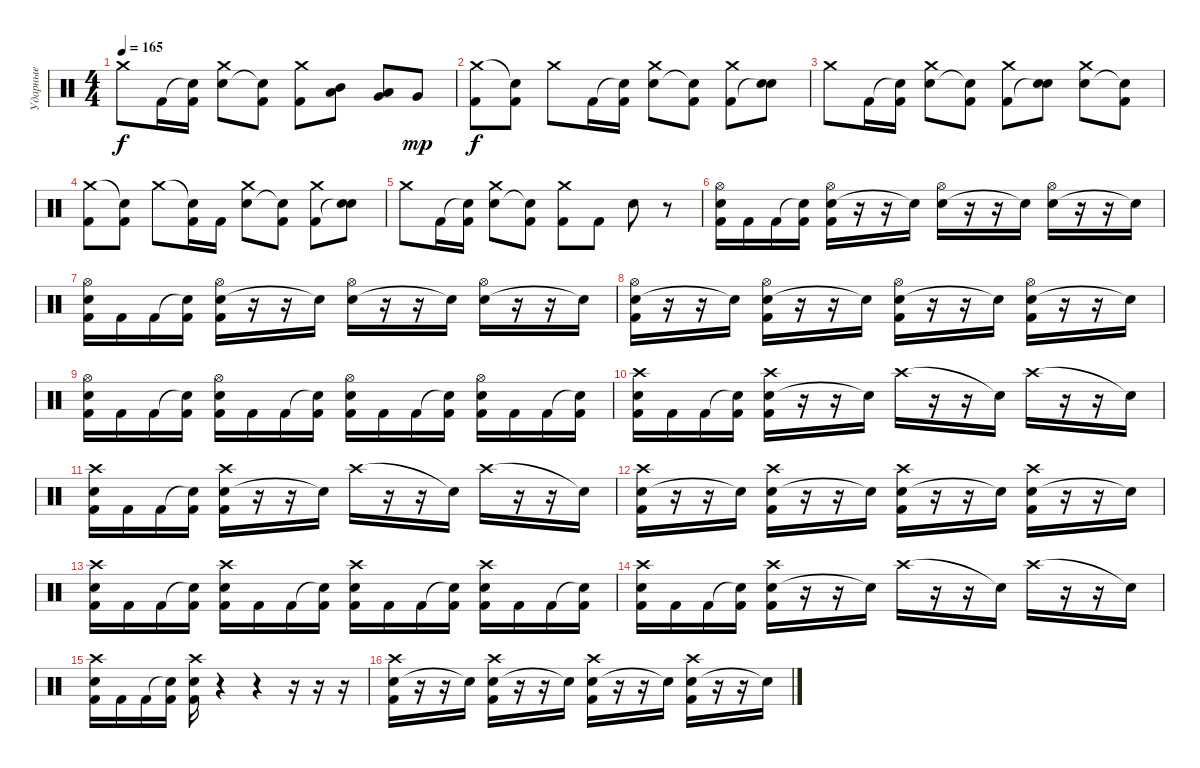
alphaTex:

\track ("Ударные" "Ударные") {instrument percussion}
\staff {score}
\articulation defaults
\ts (4 4)
\tempo 165
\clef neutral
\ks c "Crash medium (hit)".8{dy f} "Kick (hit) 2".16
("Snare (hit)"{t} "Kick (hit) 2").16 ("Electric Snare (hit)" "Crash medium (hit)").8 ("Snare (hit)"{t} "Kick (hit) 2").8 ("Crash medium (hit)" "Kick (hit) 2").8 ("Low Tom (hit)" "Mid Tom (hit)").8 ("Low Tom (hit)" "Very Low Tom (hit)").8 "Very Low Tom (hit)".8{dy mp} |
("Crash medium (hit)" "Kick (hit) 2").8{dy f} ("Snare (hit)"{t} "Kick (hit) 2").8 "Crash medium (hit)".8 "Kick (hit) 2".16 ("Snare (hit)"{t} "Kick (hit) 2").16 ("Electric Snare (hit)" "Crash medium (hit)").8 ("Snare (hit)"{t} "Kick (hit) 2").8 ("Crash medium (hit)" "Kick (hit) 2").8 ("Electric Snare (hit)" "Snare (hit)"{t}).8 |
"Crash medium (hit)".8 "Kick (hit) 2".16 ("Snare (hit)"{t} "Kick (hit) 2").16 ("Electric Snare (hit)" "Crash medium (hit)").8 ("Snare (hit)"{t} "Kick (hit) 2").8 ("Crash medium (hit)" "Kick (hit) 2").8 ("Electric Snare (hit)" "Snare (hit)"{t}).8 ("Electric Snare (hit)" "Crash medium (hit)").8 ("Snare (hit)"{t} "Kick (hit) 2").8 |
("Crash medium (hit)" "Kick (hit) 2").8 ("Snare (hit)"{t} "Kick (hit) 2").8 "Crash medium (hit)".8 ("Snare (hit)"{t} "Kick (hit) 2").16 "Kick (hit) 2".16 ("Electric Snare (hit)" "Crash medium (hit)").8 ("Snare (hit)"{t} "Kick (hit) 2").8 ("Crash medium (hit)" "Kick (hit) 2").8 ("Electric Snare (hit)" "Snare (hit)"{t}).8 |
"Crash medium (hit)".8 "Kick (hit) 2".16 ("Snare (hit)"{t} "Kick (hit) 2").16 ("Electric Snare (hit)" "Crash medium (hit)").8 ("Snare (hit)"{t} "Kick (hit) 2").8 ("Crash medium (hit)" "Kick (hit) 2").8 "Kick (hit) 2".8 "Electric Snare (hit)".8 r.8 |
("Electric Snare (hit)" "Hi-Hat (open)" "Kick (hit) 2").16 "Kick (hit) 2".16 "Kick (hit) 2".16 ("Snare (hit)"{t} "Kick (hit) 2").16 ("Electric Snare (hit)" "Hi-Hat (open)" "Kick (hit) 2").16 r.16 r.16 "Snare (hit)"{t}.16 ("Electric Snare (hit)" "Hi-Hat (open)").16 r.16 r.16 "Snare (hit)"{t}.16 ("Electric Snare (hit)" "Hi-Hat (open)").16 r.16 r.16 "Snare (hit)"{t}.16 |
("Electric Snare (hit)" "Hi-Hat (open)" "Kick (hit) 2").16 "Kick (hit) 2".16 "Kick (hit) 2".16 ("Snare (hit)"{t} "Kick (hit) 2").16 ("Electric Snare (hit)" "Hi-Hat (open)" "Kick (hit) 2").16 r.16 r.16 "Snare (hit)"{t}.16 ("Electric Snare (hit)" "Hi-Hat (open)").16 r.16 r.16 "Snare (hit)"{t}.16 ("Electric Snare (hit)" "Hi-Hat (open)").16 r.16 r.16 "Snare (hit)"{t}.16 |
("Electric Snare (hit)" "Hi-Hat (open)" "Kick (hit) 2").16 r.16 r.16 "Snare (hit)"{t}.16 ("Electric Snare (hit)" "Hi-Hat (open)" "Kick (hit) 2").16 r.16 r.16 "Snare (hit)"{t}.16 ("Electric Snare (hit)" "Hi-Hat (open)" "Kick (hit) 2").16 r.16 r.16 "Snare (hit)"{t}.16 ("Electric Snare (hit)" "Hi-Hat (open)" "Kick (hit) 2").16 r.16 r.16 "Snare (hit)"{t}.16 |
("Electric Snare (hit)" "Hi-Hat (open)" "Kick (hit) 2").16 "Kick (hit) 2".16 "Kick (hit) 2".16 ("Snare (hit)"{t} "Kick (hit) 2").16 ("Electric Snare (hit)" "Hi-Hat (open)" "Kick (hit) 2").16 "Kick (hit) 2".16 "Kick (hit) 2".16 ("Snare (hit)"{t} "Kick (hit) 2").16 ("Electric Snare (hit)" "Hi-Hat (open)" "Kick (hit) 2").16 "Kick (hit) 2".16 "Kick (hit) 2".16 ("Snare (hit)"{t} "Kick (hit) 2").16 ("Electric Snare (hit)" "Hi-Hat (open)" "Kick (hit) 2").16 "Kick (hit) 2".16 "Kick (hit) 2".16 ("Snare (hit)"{t} "Kick (hit) 2").16 |
("Electric Snare (hit)" "Crash high (hit)" "Kick (hit) 2").16 "Kick (hit) 2".16 "Kick (hit) 2".16 ("Snare (hit)"{t} "Kick (hit) 2").16 ("Electric Snare (hit)" "Crash high (hit)" "Kick (hit) 2").16 r.16 r.16 "Snare (hit)"{t}.16 "Crash high (hit)".16 r.16 r.16 "Snare (hit)"{t}.16 "Crash high (hit)".16 r.16 r.16 "Snare (hit)"{t}.16 |
("Electric Snare (hit)" "Crash high (hit)" "Kick (hit) 2").16 "Kick (hit) 2".16 "Kick (hit) 2".16 ("Snare (hit)"{t} "Kick (hit) 2").16 ("Electric Snare (hit)" "Crash high (hit)" "Kick (hit) 2").16 r.16 r.16 "Snare (hit)"{t}.16 "Crash high (hit)".16 r.16 r.16 "Snare (hit)"{t}.16 "Crash high (hit)".16 r.16 r.16 "Snare (hit)"{t}.16 |
("Electric Snare (hit)" "Crash high (hit)" "Kick (hit) 2").16 r.16 r.16 "Snare (hit)"{t}.16 ("Electric Snare (hit)" "Crash high (hit)" "Kick (hit) 2").16 r.16 r.16 "Snare (hit)"{t}.16 ("Electric Snare (hit)" "Crash high (hit)" "Kick (hit) 2").16 r.16 r.16 "Snare (hit)"{t}.16 ("Electric Snare (hit)" "Crash high (hit)" "Kick (hit) 2").16 r.16 r.16 "Snare (hit)"{t}.16 |
("Electric Snare (hit)" "Crash high (hit)" "Kick (hit) 2").16 "Kick (hit) 2".16 "Kick (hit) 2".16 ("Snare (hit)"{t} "Kick (hit) 2").16 ("Electric Snare (hit)" "Crash high (hit)" "Kick (hit) 2").16 "Kick (hit) 2".16 "Kick (hit) 2".16 ("Snare (hit)"{t} "Kick (hit) 2").16 ("Electric Snare (hit)" "Crash high (hit)" "Kick (hit) 2").16 "Kick (hit) 2".16 "Kick (hit) 2".16 ("Snare (hit)"{t} "Kick (hit) 2").16 ("Electric Snare (hit)" "Crash high (hit)" "Kick (hit) 2").16 "Kick (hit) 2".16 "Kick (hit) 2".16 ("Snare (hit)"{t} "Kick (hit) 2").16 |
("Electric Snare (hit)" "Crash high (hit)" "Kick (hit) 2").16 "Kick (hit) 2".16 "Kick (hit) 2".16 ("Snare (hit)"{t} "Kick (hit) 2").16 ("Electric Snare (hit)" "Crash high (hit)" "Kick (hit) 2").16 r.16 r.16 "Snare (hit)"{t}.16 "Crash high (hit)".16 r.16 r.16 "Snare (hit)"{t}.16 "Crash high (hit)".16 r.16 r.16 "Snare (hit)"{t}.16 |
("Electric Snare (hit)" "Crash high (hit)" "Kick (hit) 2").16 "Kick (hit) 2".16 "Kick (hit) 2".16 ("Snare (hit)"{t} "Kick (hit) 2").16 ("Electric Snare (hit)" "Crash high (hit)" "Kick (hit) 2").16 r.4 r.4 r.16 r.16 r.16 |
("Electric Snare (hit)" "Crash high (hit)" "Kick (hit) 2").16 r.16 r.16 "Snare (hit)"{t}.16 ("Electric Snare (hit)" "Crash high (hit)" "Kick (hit) 2").16 r.16 r.16 "Snare (hit)"{t}.16 ("Electric Snare (hit)" "Crash high (hit)" "Kick (hit) 2").16 r.16 r.16 "Snare (hit)"{t}.16 ("Electric Snare (hit)" "Crash high (hit)" "Kick (hit) 2").16 r.16 r.16 "Snare (hit)"{t}.16
